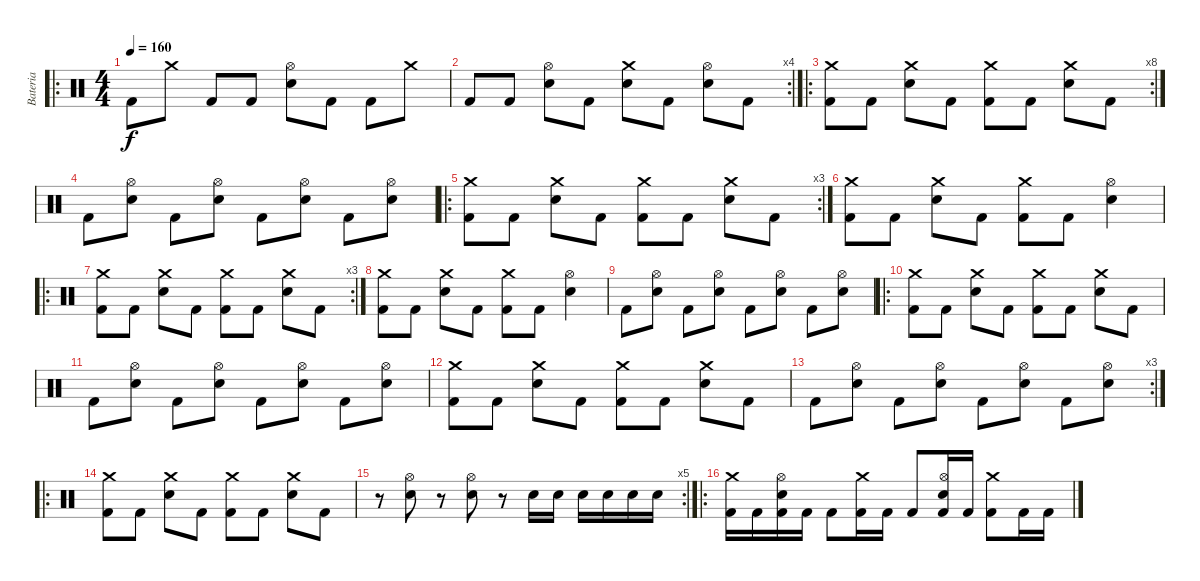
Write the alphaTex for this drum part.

\track ("Bateria" "Bateria") {instrument percussion}
\staff {score}
\articulation defaults
\ro
\ts (4 4)
\tempo 160
\clef neutral
\ks c "Kick (hit) 2".8{dy f} "Crash medium (hit)".8 "Kick (hit) 2".8 "Kick (hit) 2".8
("Hi-Hat (open)" "Electric Snare (hit)").8 "Kick (hit) 2".8 "Kick (hit) 2".8 "Crash medium (hit)".8 |
\rc 4 "Kick (hit) 2".8 "Kick (hit) 2".8
("Hi-Hat (open)" "Electric Snare (hit)").8 "Kick (hit) 2".8 ("Crash medium (hit)" "Electric Snare (hit)").8 "Kick (hit) 2".8 ("Hi-Hat (open)" "Electric Snare (hit)").8 "Kick (hit) 2".8 |
\ro
\rc 8
("Crash medium (hit)" "Kick (hit) 2").8 "Kick (hit) 2".8 ("Crash medium (hit)" "Electric Snare (hit)").8 "Kick (hit) 2".8 ("Crash medium (hit)" "Kick (hit) 2").8 "Kick (hit) 2".8 ("Crash medium (hit)" "Electric Snare (hit)").8 "Kick (hit) 2".8 |
"Kick (hit) 2".8 ("Hi-Hat (open)" "Electric Snare (hit)").8 "Kick (hit) 2".8 ("Hi-Hat (open)" "Electric Snare (hit)").8 "Kick (hit) 2".8 ("Hi-Hat (open)" "Electric Snare (hit)").8 "Kick (hit) 2".8 ("Hi-Hat (open)" "Electric Snare (hit)").8 |
\ro
\rc 3
("Crash medium (hit)" "Kick (hit) 2").8 "Kick (hit) 2".8 ("Crash medium (hit)" "Electric Snare (hit)").8 "Kick (hit) 2".8 ("Crash medium (hit)" "Kick (hit) 2").8 "Kick (hit) 2".8 ("Crash medium (hit)" "Electric Snare (hit)").8 "Kick (hit) 2".8 |
("Crash medium (hit)" "Kick (hit) 2").8 "Kick (hit) 2".8 ("Crash medium (hit)" "Electric Snare (hit)").8 "Kick (hit) 2".8 ("Crash medium (hit)" "Kick (hit) 2").8 "Kick (hit) 2".8 ("Hi-Hat (open)" "Electric Snare (hit)").4 |
\ro
\rc 3
("Crash medium (hit)" "Kick (hit) 2").8 "Kick (hit) 2".8 ("Crash medium (hit)" "Electric Snare (hit)").8 "Kick (hit) 2".8 ("Crash medium (hit)" "Kick (hit) 2").8 "Kick (hit) 2".8 ("Crash medium (hit)" "Electric Snare (hit)").8 "Kick (hit) 2".8 |
("Crash medium (hit)" "Kick (hit) 2").8 "Kick (hit) 2".8 ("Crash medium (hit)" "Electric Snare (hit)").8 "Kick (hit) 2".8 ("Crash medium (hit)" "Kick (hit) 2").8 "Kick (hit) 2".8 ("Hi-Hat (open)" "Electric Snare (hit)").4 |
"Kick (hit) 2".8 ("Hi-Hat (open)" "Electric Snare (hit)").8 "Kick (hit) 2".8 ("Hi-Hat (open)" "Electric Snare (hit)").8 "Kick (hit) 2".8 ("Hi-Hat (open)" "Electric Snare (hit)").8 "Kick (hit) 2".8 ("Hi-Hat (open)" "Electric Snare (hit)").8 |
\ro
("Crash medium (hit)" "Kick (hit) 2").8 "Kick (hit) 2".8 ("Crash medium (hit)" "Electric Snare (hit)").8 "Kick (hit) 2".8 ("Crash medium (hit)" "Kick (hit) 2").8 "Kick (hit) 2".8 ("Crash medium (hit)" "Electric Snare (hit)").8 "Kick (hit) 2".8 |
"Kick (hit) 2".8 ("Hi-Hat (open)" "Electric Snare (hit)").8 "Kick (hit) 2".8 ("Hi-Hat (open)" "Electric Snare (hit)").8 "Kick (hit) 2".8 ("Hi-Hat (open)" "Electric Snare (hit)").8 "Kick (hit) 2".8 ("Hi-Hat (open)" "Electric Snare (hit)").8 |
("Crash medium (hit)" "Kick (hit) 2").8 "Kick (hit) 2".8 ("Crash medium (hit)" "Electric Snare (hit)").8 "Kick (hit) 2".8 ("Crash medium (hit)" "Kick (hit) 2").8 "Kick (hit) 2".8 ("Crash medium (hit)" "Electric Snare (hit)").8 "Kick (hit) 2".8 |
\rc 3 "Kick (hit) 2".8
("Hi-Hat (open)" "Electric Snare (hit)").8 "Kick (hit) 2".8 ("Hi-Hat (open)" "Electric Snare (hit)").8 "Kick (hit) 2".8 ("Hi-Hat (open)" "Electric Snare (hit)").8 "Kick (hit) 2".8 ("Hi-Hat (open)" "Electric Snare (hit)").8 |
\ro
("Crash medium (hit)" "Kick (hit) 2").8 "Kick (hit) 2".8 ("Crash medium (hit)" "Electric Snare (hit)").8 "Kick (hit) 2".8 ("Crash medium (hit)" "Kick (hit) 2").8 "Kick (hit) 2".8 ("Crash medium (hit)" "Electric Snare (hit)").8 "Kick (hit) 2".8 |
\rc 5
r.8 ("Hi-Hat (open)" "Electric Snare (hit)").8 r.8 ("Hi-Hat (open)" "Electric Snare (hit)").8 r.8 "Snare (hit) 2".16 "Snare (hit) 2".16 "Snare (hit) 2".16 "Snare (hit) 2".16 "Snare (hit) 2".16 "Snare (hit) 2".16 |
\ro
("Crash medium (hit)" "Kick (hit) 2").16 "Kick (hit) 2".16 ("Hi-Hat (open)" "Snare (hit) 2" "Kick (hit) 2").16 "Kick (hit) 2".16 "Kick (hit) 2".8 ("Crash medium (hit)" "Kick (hit) 2").16 "Kick (hit) 2".16 "Kick (hit) 2".8 ("Hi-Hat (open)" "Snare (hit) 2" "Kick (hit) 2").16 "Kick (hit) 2".16 ("Crash medium (hit)" "Kick (hit) 2").8 "Kick (hit) 2".16 "Kick (hit) 2".16
